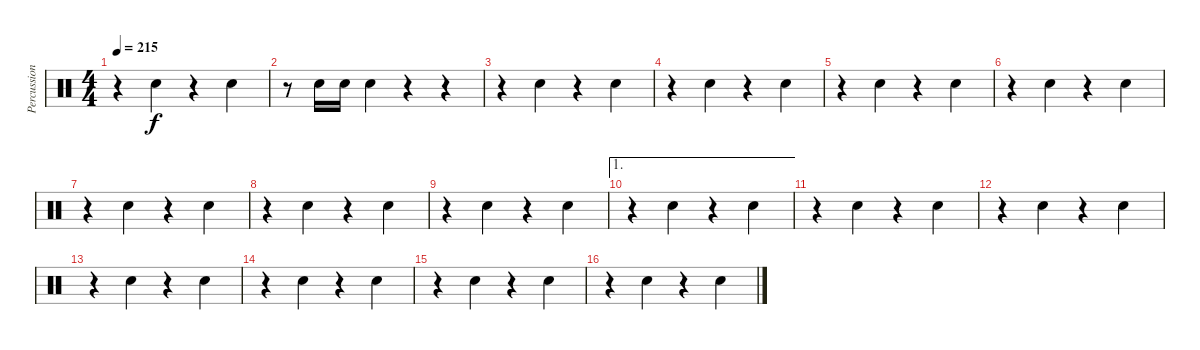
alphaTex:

\track ("Percussion" "Percussion") {instrument percussion}
\staff {score}
\articulation defaults
\ts (4 4)
\tempo 215
\clef neutral
\ks c
r.4{dy f} "Snare (hit) 2".4 r.4 "Snare (hit) 2".4 |
r.8 "Snare (hit) 2".16 "Snare (hit) 2".16 "Snare (hit) 2".4 r.4 r.4 |
r.4 "Snare (hit) 2".4 r.4 "Snare (hit) 2".4 |
r.4 "Snare (hit) 2".4 r.4 "Snare (hit) 2".4 |
r.4 "Snare (hit) 2".4 r.4 "Snare (hit) 2".4 |
r.4 "Snare (hit) 2".4 r.4 "Snare (hit) 2".4 |
r.4 "Snare (hit) 2".4 r.4 "Snare (hit) 2".4 |
r.4 "Snare (hit) 2".4 r.4 "Snare (hit) 2".4 |
r.4 "Snare (hit) 2".4 r.4 "Snare (hit) 2".4 |
\ae 1
r.4 "Snare (hit) 2".4 r.4 "Snare (hit) 2".4 |
r.4 "Snare (hit) 2".4 r.4 "Snare (hit) 2".4 |
r.4 "Snare (hit) 2".4 r.4 "Snare (hit) 2".4 |
r.4 "Snare (hit) 2".4 r.4 "Snare (hit) 2".4 |
r.4 "Snare (hit) 2".4 r.4 "Snare (hit) 2".4 |
r.4 "Snare (hit) 2".4 r.4 "Snare (hit) 2".4 |
r.4 "Snare (hit) 2".4 r.4 "Snare (hit) 2".4
